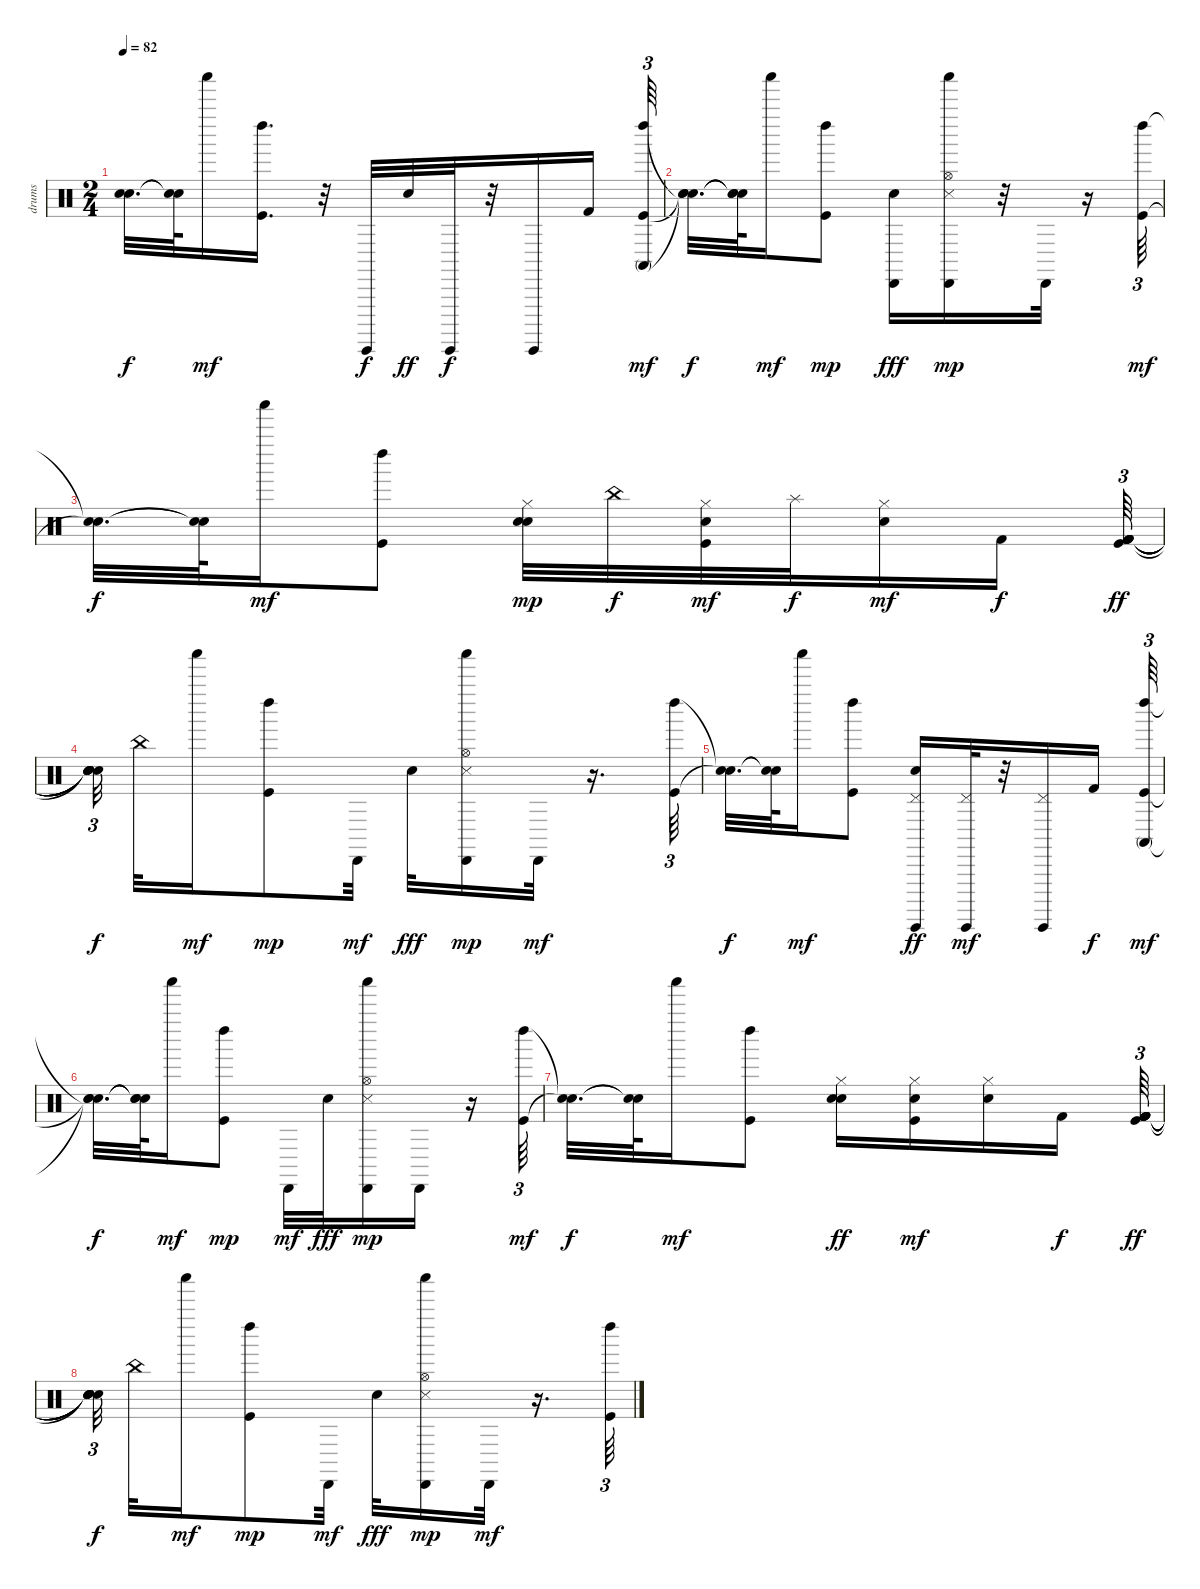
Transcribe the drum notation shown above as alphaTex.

\track ("drums" "drums") {instrument percussion}
\staff {score}
\articulation defaults
\ts (2 4)
\tempo 82
\clef neutral
\ks c
("Snare (hit)"{t} "Snare (hit)"{t}).32{d dy f} ("Snare (hit)"{t} "Snare (hit)"{t}).64 "Shaker (hit)".16{dy mf} ("Kick (hit)" "Left Maraca (hit)").16{d} r.32 "Guiro (hit)".32{dy f} "Electric Snare (hit)".32{dy ff} "Guiro (hit)".32{dy f} r.32 "Guiro (hit)".16 "Kick (hit) 2".16 ("Kick (hit)" "Left Maraca (hit)" "Conga high (mute)").64{tu (3 2) dy mf} |
("Snare (hit)"{t} "Snare (hit)"{t} "Snare (hit)"{t}).32{d dy f} ("Snare (hit)"{t} "Snare (hit)"{t} "Snare (hit)"{t}).64 "Shaker (hit)".16{dy mf} ("Kick (hit)" "Left Maraca (hit)").8{dy mp} ("Cabasa (hit)" "Electric Snare (hit)").16{dy fff} ("Snare (side stick) 3" "Shaker (hit)" "Hi-Hat (open)" "Cabasa (hit)").16{dy mp} r.32 "Cabasa (hit)".32 r.16 ("Kick (hit)" "Left Maraca (hit)").64{tu (3 2) dy mf} |
("Snare (hit)"{t} "Snare (hit)"{t}).32{d dy f} ("Snare (hit)"{t} "Snare (hit)"{t}).64 "Shaker (hit)".16{dy mf} ("Kick (hit)" "Left Maraca (hit)").8 ("Electric Snare (hit)" "Hand Clap (hit)" "Hi-Hat (closed)").32{dy mp} "China (hit)".32{dy f} ("Kick (hit)" "Hi-Hat (closed)" "Hand Clap (hit)").32{dy mf} "Splash (hit)".32{dy f} ("Hi-Hat (closed)" "Hand Clap (hit)").16{dy mf} "Kick (hit) 2".16{dy f} ("Kick (hit) 2" "Kick (hit) 2" "Kick (hit) 2" "Kick (hit) 2" "Kick (hit) 2" "Kick (hit)").64{tu (3 2) dy ff} |
("Snare (hit)"{t} "Snare (hit)"{t} "Snare (hit)"{t} "Snare (hit)"{t} "Snare (hit)"{t} "Snare (hit)"{t}).32{tu (3 2) dy f beam splitsecondary} "China (hit)".32 "Shaker (hit)".16{dy mf} ("Kick (hit)" "Left Maraca (hit)").8{dy mp} "Cabasa (hit)".32{dy mf} "Electric Snare (hit)".32{dy fff} ("Cabasa (hit)" "Snare (side stick) 3" "Shaker (hit)" "Hi-Hat (open)").16{dy mp} "Cabasa (hit)".32{dy mf} r.16{d} ("Kick (hit)" "Left Maraca (hit)").64{tu (3 2)} |
("Snare (hit)"{t} "Snare (hit)"{t}).32{d dy f} ("Snare (hit)"{t} "Snare (hit)"{t}).64 "Shaker (hit)".16{dy mf} ("Kick (hit)" "Left Maraca (hit)").8 ("Pedal Hi-Hat (hit)" "Guiro (hit)" "Electric Snare (hit)").16{dy ff} ("Guiro (hit)" "Pedal Hi-Hat (hit)").32{dy mf} r.32 ("Guiro (hit)" "Pedal Hi-Hat (hit)").16 "Kick (hit) 2".16{dy f} ("Kick (hit)" "Left Maraca (hit)" "Conga high (mute)").64{tu (3 2) dy mf} |
("Snare (hit)"{t} "Snare (hit)"{t} "Snare (hit)"{t}).32{d dy f} ("Snare (hit)"{t} "Snare (hit)"{t} "Snare (hit)"{t}).64 "Shaker (hit)".16{dy mf} ("Kick (hit)" "Left Maraca (hit)").8{dy mp} "Cabasa (hit)".32{dy mf} "Electric Snare (hit)".32{dy fff} ("Cabasa (hit)" "Snare (side stick) 3" "Shaker (hit)" "Hi-Hat (open)").16{dy mp} "Cabasa (hit)".16 r.16 ("Kick (hit)" "Left Maraca (hit)").64{tu (3 2) dy mf} |
("Snare (hit)"{t} "Snare (hit)"{t}).32{d dy f} ("Snare (hit)"{t} "Snare (hit)"{t}).64 "Shaker (hit)".16{dy mf} ("Kick (hit)" "Left Maraca (hit)").8 ("Hand Clap (hit)" "Hi-Hat (closed)" "Electric Snare (hit)").16{dy ff} ("Kick (hit)" "Hi-Hat (closed)" "Hand Clap (hit)").16{dy mf} ("Hi-Hat (closed)" "Hand Clap (hit)").16 "Kick (hit) 2".16{dy f} ("Kick (hit) 2" "Kick (hit) 2" "Kick (hit) 2" "Kick (hit) 2" "Kick (hit) 2" "Kick (hit)").64{tu (3 2) dy ff} |
("Snare (hit)"{t} "Snare (hit)"{t} "Snare (hit)"{t} "Snare (hit)"{t} "Snare (hit)"{t} "Snare (hit)"{t}).32{tu (3 2) dy f beam splitsecondary} "China (hit)".32 "Shaker (hit)".16{dy mf} ("Kick (hit)" "Left Maraca (hit)").8{dy mp} "Cabasa (hit)".32{dy mf} "Electric Snare (hit)".32{dy fff} ("Cabasa (hit)" "Snare (side stick) 3" "Shaker (hit)" "Hi-Hat (open)").16{dy mp} "Cabasa (hit)".32{dy mf} r.16{d} ("Kick (hit)" "Left Maraca (hit)").64{tu (3 2)}
